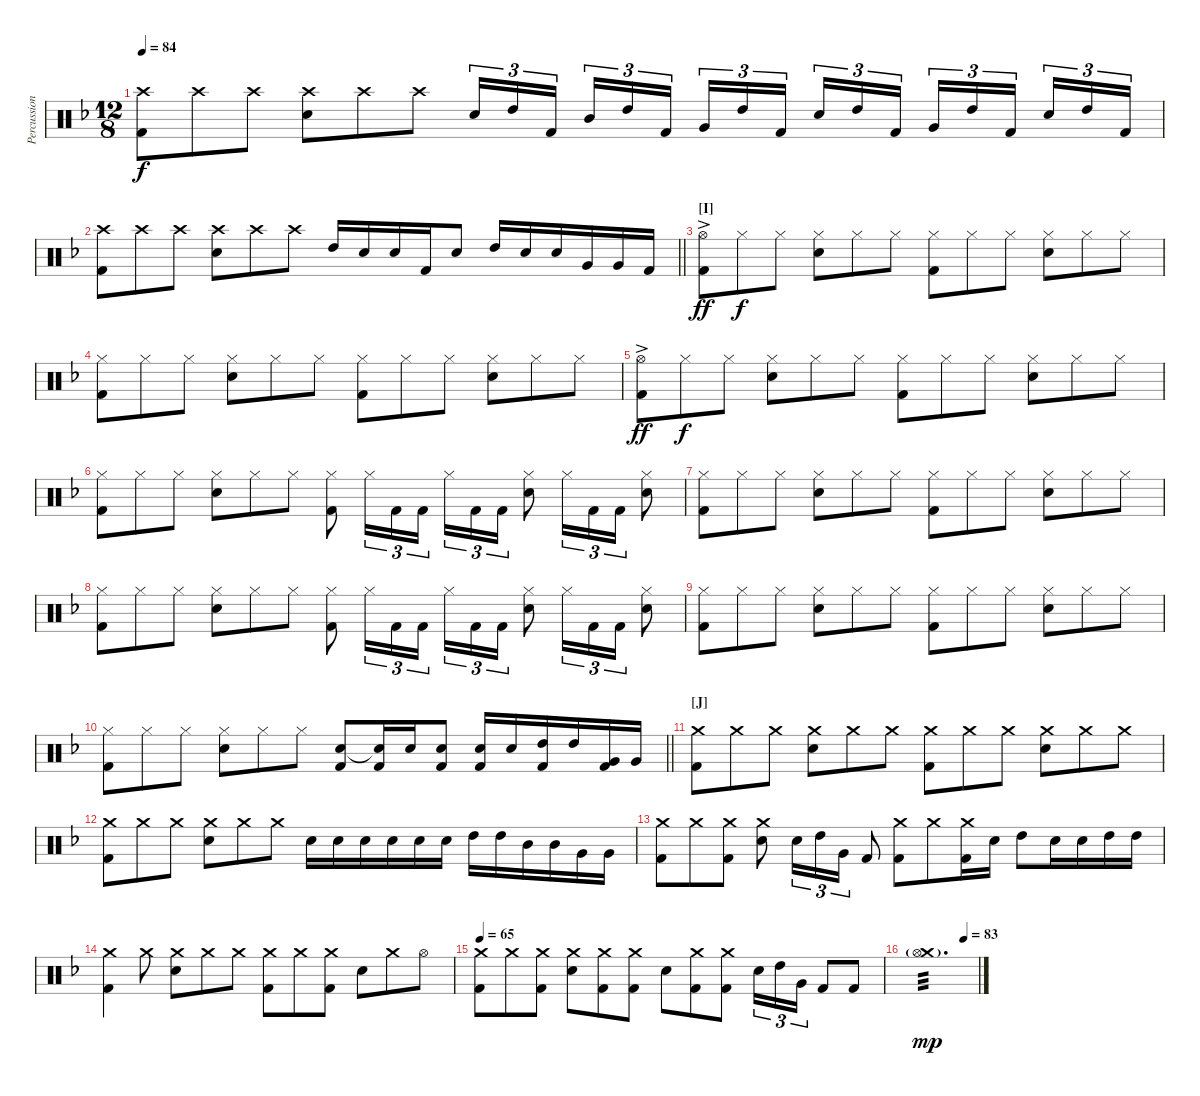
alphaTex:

\track ("Percussions" "Percussion") {instrument percussion}
\staff {score}
\articulation defaults
\ts (12 8)
\tempo 84
\clef neutral
\ks dminor
("Crash high (hit)" "Kick (hit) 2").8{dy f} "Crash high (hit)".8 "Crash high (hit)".8 ("Crash high (hit)" "Electric Snare (hit)").8 "Crash high (hit)".8 "Crash high (hit)".8 "Electric Snare (hit)".16{tu (3 2)} "High Tom (hit)".16{tu (3 2)} "Kick (hit) 2".16{tu (3 2) beam splitsecondary} "Mid Tom (hit)".16{tu (3 2)} "High Tom (hit)".16{tu (3 2)} "Kick (hit) 2".16{tu (3 2) beam splitsecondary} "Very Low Tom (hit)".16{tu (3 2)} "High Tom (hit)".16{tu (3 2)} "Kick (hit) 2".16{tu (3 2)} "Electric Snare (hit)".16{tu (3 2)} "High Tom (hit)".16{tu (3 2)} "Kick (hit) 2".16{tu (3 2) beam splitsecondary} "Very Low Tom (hit)".16{tu (3 2)} "High Tom (hit)".16{tu (3 2)} "Kick (hit) 2".16{tu (3 2) beam splitsecondary} "Electric Snare (hit)".16{tu (3 2)} "High Tom (hit)".16{tu (3 2)} "Kick (hit) 2".16{tu (3 2)} |
\barLineRight lightlight
("Crash high (hit)" "Kick (hit) 2").8 "Crash high (hit)".8 "Crash high (hit)".8 ("Crash high (hit)" "Electric Snare (hit)").8 "Crash high (hit)".8 "Crash high (hit)".8 "High Tom (hit)".16 "Electric Snare (hit)".16 "Electric Snare (hit)".16 "Kick (hit) 2".16 "Electric Snare (hit)".8 "High Tom (hit)".16 "Electric Snare (hit)".16 "Electric Snare (hit)".16 "Very Low Tom (hit)".16 "Very Low Tom (hit)".16 "Kick (hit) 2".16 |
\section ("" "[I]")
("Hi-Hat (open)"{ac} "Kick (hit) 2").8{dy ff} "Hi-Hat (closed)".8{dy f} "Hi-Hat (closed)".8 ("Hi-Hat (closed)" "Electric Snare (hit)").8 "Hi-Hat (closed)".8 "Hi-Hat (closed)".8 ("Hi-Hat (closed)" "Kick (hit) 2").8 "Hi-Hat (closed)".8 "Hi-Hat (closed)".8 ("Hi-Hat (closed)" "Electric Snare (hit)").8 "Hi-Hat (closed)".8 "Hi-Hat (closed)".8 |
("Hi-Hat (closed)" "Kick (hit) 2").8 "Hi-Hat (closed)".8 "Hi-Hat (closed)".8 ("Hi-Hat (closed)" "Electric Snare (hit)").8 "Hi-Hat (closed)".8 "Hi-Hat (closed)".8 ("Hi-Hat (closed)" "Kick (hit) 2").8 "Hi-Hat (closed)".8 "Hi-Hat (closed)".8 ("Hi-Hat (closed)" "Electric Snare (hit)").8 "Hi-Hat (closed)".8 "Hi-Hat (closed)".8 |
("Hi-Hat (open)"{ac} "Kick (hit) 2").8{dy ff} "Hi-Hat (closed)".8{dy f} "Hi-Hat (closed)".8 ("Hi-Hat (closed)" "Electric Snare (hit)").8 "Hi-Hat (closed)".8 "Hi-Hat (closed)".8 ("Hi-Hat (closed)" "Kick (hit) 2").8 "Hi-Hat (closed)".8 "Hi-Hat (closed)".8 ("Hi-Hat (closed)" "Electric Snare (hit)").8 "Hi-Hat (closed)".8 "Hi-Hat (closed)".8 |
("Hi-Hat (closed)" "Kick (hit) 2").8 "Hi-Hat (closed)".8 "Hi-Hat (closed)".8 ("Hi-Hat (closed)" "Electric Snare (hit)").8 "Hi-Hat (closed)".8 "Hi-Hat (closed)".8 ("Hi-Hat (closed)" "Kick (hit) 2").8 "Hi-Hat (closed)".16{tu (3 2)} "Kick (hit) 2".16{tu (3 2)} "Kick (hit) 2".16{tu (3 2) beam splitsecondary} "Hi-Hat (closed)".16{tu (3 2)} "Kick (hit) 2".16{tu (3 2)} "Kick (hit) 2".16{tu (3 2)} ("Hi-Hat (closed)" "Electric Snare (hit)").8 "Hi-Hat (closed)".16{tu (3 2)} "Kick (hit) 2".16{tu (3 2)} "Kick (hit) 2".16{tu (3 2)} ("Hi-Hat (closed)" "Electric Snare (hit)").8 |
("Hi-Hat (closed)" "Kick (hit) 2").8 "Hi-Hat (closed)".8 "Hi-Hat (closed)".8 ("Hi-Hat (closed)" "Electric Snare (hit)").8 "Hi-Hat (closed)".8 "Hi-Hat (closed)".8 ("Hi-Hat (closed)" "Kick (hit) 2").8 "Hi-Hat (closed)".8 "Hi-Hat (closed)".8 ("Hi-Hat (closed)" "Electric Snare (hit)").8 "Hi-Hat (closed)".8 "Hi-Hat (closed)".8 |
("Hi-Hat (closed)" "Kick (hit) 2").8 "Hi-Hat (closed)".8 "Hi-Hat (closed)".8 ("Hi-Hat (closed)" "Electric Snare (hit)").8 "Hi-Hat (closed)".8 "Hi-Hat (closed)".8 ("Hi-Hat (closed)" "Kick (hit) 2").8 "Hi-Hat (closed)".16{tu (3 2)} "Kick (hit) 2".16{tu (3 2)} "Kick (hit) 2".16{tu (3 2) beam splitsecondary} "Hi-Hat (closed)".16{tu (3 2)} "Kick (hit) 2".16{tu (3 2)} "Kick (hit) 2".16{tu (3 2)} ("Hi-Hat (closed)" "Electric Snare (hit)").8 "Hi-Hat (closed)".16{tu (3 2)} "Kick (hit) 2".16{tu (3 2)} "Kick (hit) 2".16{tu (3 2)} ("Hi-Hat (closed)" "Electric Snare (hit)").8 |
("Hi-Hat (closed)" "Kick (hit) 2").8 "Hi-Hat (closed)".8 "Hi-Hat (closed)".8 ("Hi-Hat (closed)" "Electric Snare (hit)").8 "Hi-Hat (closed)".8 "Hi-Hat (closed)".8 ("Hi-Hat (closed)" "Kick (hit) 2").8 "Hi-Hat (closed)".8 "Hi-Hat (closed)".8 ("Hi-Hat (closed)" "Electric Snare (hit)").8 "Hi-Hat (closed)".8 "Hi-Hat (closed)".8 |
\barLineRight lightlight
("Hi-Hat (closed)" "Kick (hit) 2").8 "Hi-Hat (closed)".8 "Hi-Hat (closed)".8 ("Hi-Hat (closed)" "Electric Snare (hit)").8 "Hi-Hat (closed)".8 "Hi-Hat (closed)".8 ("Electric Snare (hit)" "Kick (hit) 2").8 ("Snare (hit)"{t} "Kick (hit) 2").16 "Electric Snare (hit)".16 ("Electric Snare (hit)" "Kick (hit) 2").8 ("Electric Snare (hit)" "Kick (hit) 2").16 "Electric Snare (hit)".16 ("High Tom (hit)" "Kick (hit) 2").16 "High Tom (hit)".16 ("Very Low Tom (hit)" "Kick (hit) 2").16 "Very Low Tom (hit)".16 |
\section ("" "[J]")
("Crash medium (hit)" "Kick (hit) 2").8 "Crash medium (hit)".8 "Crash medium (hit)".8 ("Crash medium (hit)" "Electric Snare (hit)").8 "Crash medium (hit)".8 "Crash medium (hit)".8 ("Crash medium (hit)" "Kick (hit) 2").8 "Crash medium (hit)".8 "Crash medium (hit)".8 ("Crash medium (hit)" "Electric Snare (hit)").8 "Crash medium (hit)".8 "Crash medium (hit)".8 |
("Crash medium (hit)" "Kick (hit) 2").8 "Crash medium (hit)".8 "Crash medium (hit)".8 ("Crash medium (hit)" "Electric Snare (hit)").8 "Crash medium (hit)".8 "Crash medium (hit)".8 "Electric Snare (hit)".16 "Electric Snare (hit)".16 "Electric Snare (hit)".16 "Electric Snare (hit)".16 "Electric Snare (hit)".16 "Electric Snare (hit)".16 "High Tom (hit)".16 "High Tom (hit)".16 "Mid Tom (hit)".16 "Mid Tom (hit)".16 "Very Low Tom (hit)".16 "Very Low Tom (hit)".16 |
("Crash medium (hit)" "Kick (hit) 2").8 "Crash medium (hit)".8 ("Crash medium (hit)" "Kick (hit) 2").8 ("Crash medium (hit)" "Electric Snare (hit)").8 "Electric Snare (hit)".16{tu (3 2)} "High Tom (hit)".16{tu (3 2)} "Very Low Tom (hit)".16{tu (3 2)} "Kick (hit) 2".8 ("Crash medium (hit)" "Kick (hit) 2").8 "Crash medium (hit)".8 ("Crash medium (hit)" "Kick (hit) 2").16 "Electric Snare (hit)".16 "High Tom (hit)".8 "Electric Snare (hit)".16 "Electric Snare (hit)".16 "High Tom (hit)".16 "High Tom (hit)".16 |
("Crash medium (hit)" "Kick (hit) 2").4 "Crash medium (hit)".8 ("Crash medium (hit)" "Electric Snare (hit)").8 "Crash medium (hit)".8 "Crash medium (hit)".8 ("Crash medium (hit)" "Kick (hit) 2").8 "Crash medium (hit)".8 ("Crash medium (hit)" "Kick (hit) 2").8 "Electric Snare (hit)".8 "Crash medium (hit)".8 "Hi-Hat (open)".8 |
\tempo 65
("Crash medium (hit)" "Kick (hit) 2").8 "Crash medium (hit)".8 ("Crash medium (hit)" "Kick (hit) 2").8 ("Crash medium (hit)" "Electric Snare (hit)").8 ("Crash medium (hit)" "Kick (hit) 2").8 ("Crash medium (hit)" "Kick (hit) 2").8 "Electric Snare (hit)".8 ("Crash medium (hit)" "Kick (hit) 2").8 ("Crash medium (hit)" "Kick (hit) 2").8 "Electric Snare (hit)".16{tu (3 2)} "High Tom (hit)".16{tu (3 2)} "Very Low Tom (hit)".16{tu (3 2)} "Kick (hit) 2".8 "Kick (hit) 2".8 |
\tempo (83 0.75)
("Crash medium (hit)"{g} "Hi-Hat (open)"{g}).1{d tp 3 dy mp}
